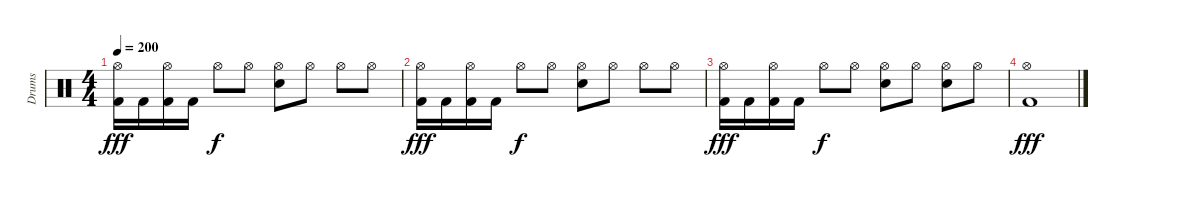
\track ("Drums" "Drums") {instrument percussion}
\staff {score}
\articulation defaults
\ts (4 4)
\tempo 200
\clef neutral
\ks c
("Hi-Hat (open)" "Kick (hit) 2").16{dy fff} "Kick (hit) 2".16 ("Hi-Hat (open)" "Kick (hit) 2").16 "Kick (hit) 2".16 "Hi-Hat (open)".8{dy f} "Hi-Hat (open)".8 ("Hi-Hat (open)" "Electric Snare (hit)").8 "Hi-Hat (open)".8 "Hi-Hat (open)".8 "Hi-Hat (open)".8 |
("Hi-Hat (open)" "Kick (hit) 2").16{dy fff} "Kick (hit) 2".16 ("Hi-Hat (open)" "Kick (hit) 2").16 "Kick (hit) 2".16 "Hi-Hat (open)".8{dy f} "Hi-Hat (open)".8 ("Hi-Hat (open)" "Electric Snare (hit)").8 "Hi-Hat (open)".8 "Hi-Hat (open)".8 "Hi-Hat (open)".8 |
("Hi-Hat (open)" "Kick (hit) 2").16{dy fff} "Kick (hit) 2".16 ("Hi-Hat (open)" "Kick (hit) 2").16 "Kick (hit) 2".16 "Hi-Hat (open)".8{dy f} "Hi-Hat (open)".8 ("Hi-Hat (open)" "Electric Snare (hit)").8 "Hi-Hat (open)".8 ("Hi-Hat (open)" "Electric Snare (hit)").8 "Hi-Hat (open)".8 |
("Hi-Hat (open)" "Kick (hit) 2").1{dy fff}
